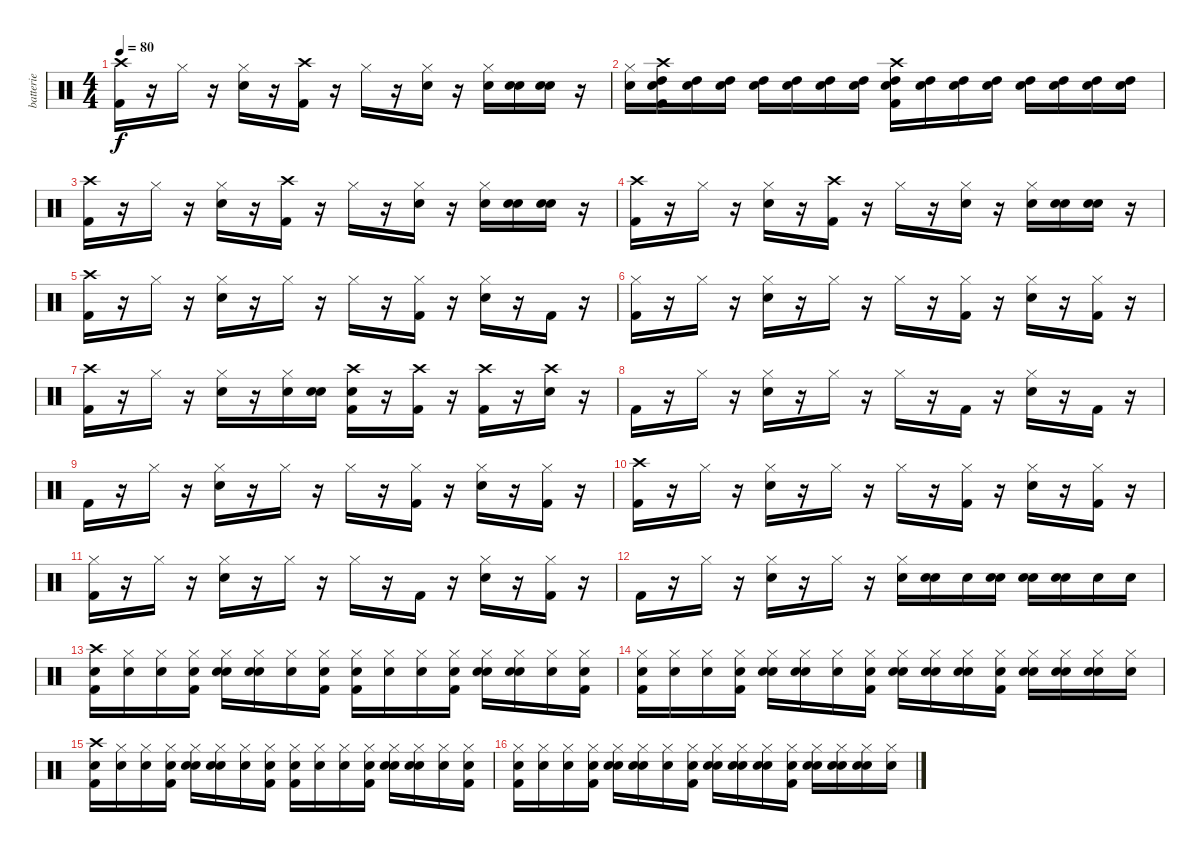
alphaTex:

\track ("batterie" "batterie") {instrument percussion}
\staff {score}
\articulation defaults
\ts (4 4)
\tempo 80
\clef neutral
\ks c
("Crash high (hit)" "Kick (hit) 2").16{dy f} r.16 "Hi-Hat (closed)".16 r.16 ("Hi-Hat (closed)" "Snare (hit) 2").16 r.16 ("Crash high (hit)" "Kick (hit) 2").16 r.16 "Hi-Hat (closed)".16 r.16 ("Hi-Hat (closed)" "Snare (hit) 2").16 r.16 ("Hi-Hat (closed)" "Snare (hit) 2").16 ("Snare (hit)" "Snare (hit) 2").16 ("Snare (hit)" "Snare (hit) 2").16 r.16 |
("Snare (hit)" "Hi-Hat (closed)").16 ("Snare (hit)" "High Tom (hit)" "Kick (hit) 2" "Crash high (hit)").16 ("Snare (hit)" "High Tom (hit)").16 ("Snare (hit)" "High Tom (hit)").16 ("Snare (hit)" "High Tom (hit)").16 ("Snare (hit)" "High Tom (hit)").16 ("Snare (hit)" "High Tom (hit)").16 ("Snare (hit)" "High Tom (hit)").16 ("Snare (hit)" "High Tom (hit)" "Kick (hit) 2" "Crash high (hit)").16 ("Snare (hit)" "High Tom (hit)").16 ("Snare (hit)" "High Tom (hit)").16 ("Snare (hit)" "High Tom (hit)").16 ("Snare (hit)" "High Tom (hit)").16 ("Snare (hit)" "High Tom (hit)").16 ("Snare (hit)" "High Tom (hit)").16 ("Snare (hit)" "High Tom (hit)").16 |
("Crash high (hit)" "Kick (hit) 2").16 r.16 "Hi-Hat (closed)".16 r.16 ("Hi-Hat (closed)" "Snare (hit) 2").16 r.16 ("Crash high (hit)" "Kick (hit) 2").16 r.16 "Hi-Hat (closed)".16 r.16 ("Hi-Hat (closed)" "Snare (hit) 2").16 r.16 ("Hi-Hat (closed)" "Snare (hit) 2").16 ("Snare (hit)" "Snare (hit) 2").16 ("Snare (hit)" "Snare (hit) 2").16 r.16 |
("Crash high (hit)" "Kick (hit) 2").16 r.16 "Hi-Hat (closed)".16 r.16 ("Hi-Hat (closed)" "Snare (hit) 2").16 r.16 ("Crash high (hit)" "Kick (hit) 2").16 r.16 "Hi-Hat (closed)".16 r.16 ("Hi-Hat (closed)" "Snare (hit) 2").16 r.16 ("Hi-Hat (closed)" "Snare (hit) 2").16 ("Snare (hit)" "Snare (hit) 2").16 ("Snare (hit)" "Snare (hit) 2").16 r.16 |
("Crash high (hit)" "Kick (hit) 2").16 r.16 "Hi-Hat (closed)".16 r.16 ("Hi-Hat (closed)" "Snare (hit) 2").16 r.16 "Hi-Hat (closed)".16 r.16 "Hi-Hat (closed)".16 r.16 ("Hi-Hat (closed)" "Kick (hit) 2").16 r.16 ("Hi-Hat (closed)" "Snare (hit) 2").16 r.16 "Kick (hit) 2".16 r.16 |
("Hi-Hat (closed)" "Kick (hit) 2").16 r.16 "Hi-Hat (closed)".16 r.16 ("Hi-Hat (closed)" "Snare (hit) 2").16 r.16 "Hi-Hat (closed)".16 r.16 "Hi-Hat (closed)".16 r.16 ("Hi-Hat (closed)" "Kick (hit) 2").16 r.16 ("Hi-Hat (closed)" "Snare (hit) 2").16 r.16 ("Hi-Hat (closed)" "Kick (hit) 2").16 r.16 |
("Crash high (hit)" "Kick (hit) 2").16 r.16 "Hi-Hat (closed)".16 r.16 ("Hi-Hat (closed)" "Snare (hit) 2").16 r.16 ("Hi-Hat (closed)" "Snare (hit) 2").16 ("Snare (hit)" "Snare (hit) 2").16 ("Snare (hit)" "Crash high (hit)" "Kick (hit) 2").16 r.16 ("Crash high (hit)" "Kick (hit) 2").16 r.16 ("Crash high (hit)" "Kick (hit) 2").16 r.16 ("Crash high (hit)" "Snare (hit) 2").16 r.16 |
"Kick (hit) 2".16 r.16 "Hi-Hat (closed)".16 r.16 ("Hi-Hat (closed)" "Snare (hit) 2").16 r.16 "Hi-Hat (closed)".16 r.16 "Hi-Hat (closed)".16 r.16 "Kick (hit) 2".16 r.16 ("Hi-Hat (closed)" "Snare (hit) 2").16 r.16 "Kick (hit) 2".16 r.16 |
"Kick (hit) 2".16 r.16 "Hi-Hat (closed)".16 r.16 ("Hi-Hat (closed)" "Snare (hit) 2").16 r.16 "Hi-Hat (closed)".16 r.16 "Hi-Hat (closed)".16 r.16 ("Hi-Hat (closed)" "Kick (hit) 2").16 r.16 ("Hi-Hat (closed)" "Snare (hit) 2").16 r.16 ("Hi-Hat (closed)" "Kick (hit) 2").16 r.16 |
("Crash high (hit)" "Kick (hit) 2").16 r.16 "Hi-Hat (closed)".16 r.16 ("Hi-Hat (closed)" "Snare (hit) 2").16 r.16 "Hi-Hat (closed)".16 r.16 "Hi-Hat (closed)".16 r.16 ("Hi-Hat (closed)" "Kick (hit) 2").16 r.16 ("Hi-Hat (closed)" "Snare (hit) 2").16 r.16 ("Hi-Hat (closed)" "Kick (hit) 2").16 r.16 |
("Hi-Hat (closed)" "Kick (hit) 2").16 r.16 "Hi-Hat (closed)".16 r.16 ("Hi-Hat (closed)" "Snare (hit) 2").16 r.16 "Hi-Hat (closed)".16 r.16 "Hi-Hat (closed)".16 r.16 "Kick (hit) 2".16 r.16 ("Hi-Hat (closed)" "Snare (hit) 2").16 r.16 ("Hi-Hat (closed)" "Kick (hit) 2").16 r.16 |
"Kick (hit) 2".16 r.16 "Hi-Hat (closed)".16 r.16 ("Hi-Hat (closed)" "Snare (hit) 2").16 r.16 "Hi-Hat (closed)".16 r.16 ("Snare (hit) 2" "Hi-Hat (closed)").16 ("Snare (hit)" "Snare (hit) 2").16 "Snare (hit) 2".16 ("Snare (hit)" "Snare (hit) 2").16 ("Snare (hit)" "Snare (hit) 2").16 ("Snare (hit)" "Snare (hit) 2").16 "Snare (hit) 2".16 "Snare (hit) 2".16 |
("Snare (hit)" "Crash high (hit)" "Kick (hit) 2").16 ("Snare (hit)" "Hi-Hat (closed)").16 ("Snare (hit)" "Hi-Hat (closed)").16 ("Snare (hit)" "Hi-Hat (closed)" "Kick (hit) 2").16 ("Snare (hit)" "Hi-Hat (closed)" "Snare (hit) 2").16 ("Snare (hit)" "Hi-Hat (closed)" "Snare (hit) 2").16 ("Snare (hit)" "Hi-Hat (closed)").16 ("Snare (hit)" "Hi-Hat (closed)" "Kick (hit) 2").16 ("Snare (hit)" "Hi-Hat (closed)" "Kick (hit) 2").16 ("Snare (hit)" "Hi-Hat (closed)").16 ("Snare (hit)" "Hi-Hat (closed)").16 ("Snare (hit)" "Hi-Hat (closed)" "Kick (hit) 2").16 ("Snare (hit)" "Hi-Hat (closed)" "Snare (hit) 2").16 ("Snare (hit)" "Hi-Hat (closed)" "Snare (hit) 2").16 ("Snare (hit)" "Hi-Hat (closed)").16 ("Snare (hit)" "Hi-Hat (closed)" "Kick (hit) 2").16 |
("Snare (hit)" "Kick (hit) 2" "Hi-Hat (closed)").16 ("Snare (hit)" "Hi-Hat (closed)").16 ("Snare (hit)" "Hi-Hat (closed)").16 ("Snare (hit)" "Kick (hit) 2" "Hi-Hat (closed)").16 ("Snare (hit)" "Snare (hit) 2" "Hi-Hat (closed)").16 ("Snare (hit)" "Snare (hit) 2" "Hi-Hat (closed)").16 ("Snare (hit)" "Hi-Hat (closed)").16 ("Snare (hit)" "Kick (hit) 2" "Hi-Hat (closed)").16 ("Snare (hit)" "Snare (hit) 2" "Hi-Hat (closed)").16 ("Snare (hit)" "Snare (hit) 2" "Hi-Hat (closed)").16 ("Snare (hit)" "Snare (hit) 2" "Hi-Hat (closed)").16 ("Snare (hit)" "Kick (hit) 2" "Hi-Hat (closed)").16 ("Snare (hit)" "Snare (hit) 2" "Hi-Hat (closed)").16 ("Snare (hit)" "Snare (hit) 2" "Hi-Hat (closed)").16 ("Snare (hit)" "Snare (hit) 2" "Hi-Hat (closed)").16 ("Snare (hit) 2" "Hi-Hat (closed)").16 |
("Snare (hit)" "Crash high (hit)" "Kick (hit) 2").16 ("Snare (hit)" "Hi-Hat (closed)").16 ("Snare (hit)" "Hi-Hat (closed)").16 ("Snare (hit)" "Hi-Hat (closed)" "Kick (hit) 2").16 ("Snare (hit)" "Hi-Hat (closed)" "Snare (hit) 2").16 ("Snare (hit)" "Hi-Hat (closed)" "Snare (hit) 2").16 ("Snare (hit)" "Hi-Hat (closed)").16 ("Snare (hit)" "Hi-Hat (closed)" "Kick (hit) 2").16 ("Snare (hit)" "Hi-Hat (closed)" "Kick (hit) 2").16 ("Snare (hit)" "Hi-Hat (closed)").16 ("Snare (hit)" "Hi-Hat (closed)").16 ("Snare (hit)" "Hi-Hat (closed)" "Kick (hit) 2").16 ("Snare (hit)" "Hi-Hat (closed)" "Snare (hit) 2").16 ("Snare (hit)" "Hi-Hat (closed)" "Snare (hit) 2").16 ("Snare (hit)" "Hi-Hat (closed)").16 ("Snare (hit)" "Hi-Hat (closed)" "Kick (hit) 2").16 |
("Snare (hit)" "Kick (hit) 2" "Hi-Hat (closed)").16 ("Snare (hit)" "Hi-Hat (closed)").16 ("Snare (hit)" "Hi-Hat (closed)").16 ("Snare (hit)" "Kick (hit) 2" "Hi-Hat (closed)").16 ("Snare (hit)" "Snare (hit) 2" "Hi-Hat (closed)").16 ("Snare (hit)" "Snare (hit) 2" "Hi-Hat (closed)").16 ("Snare (hit)" "Hi-Hat (closed)").16 ("Snare (hit)" "Kick (hit) 2" "Hi-Hat (closed)").16 ("Snare (hit)" "Snare (hit) 2" "Hi-Hat (closed)").16 ("Snare (hit)" "Snare (hit) 2" "Hi-Hat (closed)").16 ("Snare (hit)" "Snare (hit) 2" "Hi-Hat (closed)").16 ("Snare (hit)" "Kick (hit) 2" "Hi-Hat (closed)").16 ("Snare (hit)" "Snare (hit) 2" "Hi-Hat (closed)").16 ("Snare (hit)" "Snare (hit) 2" "Hi-Hat (closed)").16 ("Snare (hit)" "Snare (hit) 2" "Hi-Hat (closed)").16 ("Snare (hit) 2" "Hi-Hat (closed)").16
